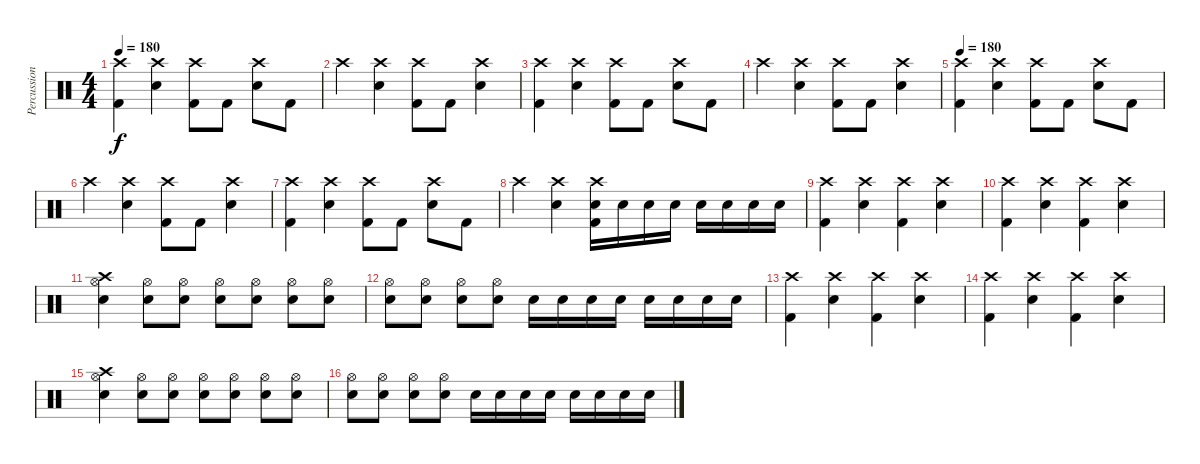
\track ("Percussions" "Percussion") {instrument percussion}
\staff {score}
\articulation defaults
\ts (4 4)
\tempo 180
\clef neutral
\ks c
("Crash high (hit)" "Kick (hit) 2").4{dy f} ("Crash high (hit)" "Electric Snare (hit)").4 ("Crash high (hit)" "Kick (hit) 2").8 "Kick (hit) 2".8 ("Crash high (hit)" "Electric Snare (hit)").8 "Kick (hit) 2".8 |
"Crash high (hit)".4 ("Crash high (hit)" "Electric Snare (hit)").4 ("Crash high (hit)" "Kick (hit) 2").8 "Kick (hit) 2".8 ("Crash high (hit)" "Electric Snare (hit)").4 |
("Crash high (hit)" "Kick (hit) 2").4 ("Crash high (hit)" "Electric Snare (hit)").4 ("Crash high (hit)" "Kick (hit) 2").8 "Kick (hit) 2".8 ("Crash high (hit)" "Electric Snare (hit)").8 "Kick (hit) 2".8 |
"Crash high (hit)".4 ("Crash high (hit)" "Electric Snare (hit)").4 ("Crash high (hit)" "Kick (hit) 2").8 "Kick (hit) 2".8 ("Crash high (hit)" "Electric Snare (hit)").4 |
\tempo 180
("Crash high (hit)" "Kick (hit) 2").4 ("Crash high (hit)" "Electric Snare (hit)").4 ("Crash high (hit)" "Kick (hit) 2").8 "Kick (hit) 2".8 ("Crash high (hit)" "Electric Snare (hit)").8 "Kick (hit) 2".8 |
"Crash high (hit)".4 ("Crash high (hit)" "Electric Snare (hit)").4 ("Crash high (hit)" "Kick (hit) 2").8 "Kick (hit) 2".8 ("Crash high (hit)" "Electric Snare (hit)").4 |
("Crash high (hit)" "Kick (hit) 2").4 ("Crash high (hit)" "Electric Snare (hit)").4 ("Crash high (hit)" "Kick (hit) 2").8 "Kick (hit) 2".8 ("Crash high (hit)" "Electric Snare (hit)").8 "Kick (hit) 2".8 |
"Crash high (hit)".4 ("Crash high (hit)" "Electric Snare (hit)").4 ("Crash high (hit)" "Kick (hit) 2" "Electric Snare (hit)").16 "Electric Snare (hit)".16 "Electric Snare (hit)".16 "Electric Snare (hit)".16 "Electric Snare (hit)".16 "Electric Snare (hit)".16 "Electric Snare (hit)".16 "Electric Snare (hit)".16 |
("Crash high (hit)" "Kick (hit) 2").4 ("Crash high (hit)" "Electric Snare (hit)").4 ("Crash high (hit)" "Kick (hit) 2").4 ("Crash high (hit)" "Electric Snare (hit)").4 |
("Crash high (hit)" "Kick (hit) 2").4 ("Crash high (hit)" "Electric Snare (hit)").4 ("Crash high (hit)" "Kick (hit) 2").4 ("Crash high (hit)" "Electric Snare (hit)").4 |
("Crash high (hit)" "Hi-Hat (open)" "Electric Snare (hit)").4 ("Hi-Hat (open)" "Electric Snare (hit)").8 ("Hi-Hat (open)" "Electric Snare (hit)").8 ("Hi-Hat (open)" "Electric Snare (hit)").8 ("Hi-Hat (open)" "Electric Snare (hit)").8 ("Hi-Hat (open)" "Electric Snare (hit)").8 ("Hi-Hat (open)" "Electric Snare (hit)").8 |
("Hi-Hat (open)" "Electric Snare (hit)").8 ("Hi-Hat (open)" "Electric Snare (hit)").8 ("Hi-Hat (open)" "Electric Snare (hit)").8 ("Hi-Hat (open)" "Electric Snare (hit)").8 "Electric Snare (hit)".16 "Electric Snare (hit)".16 "Electric Snare (hit)".16 "Electric Snare (hit)".16 "Electric Snare (hit)".16 "Electric Snare (hit)".16 "Electric Snare (hit)".16 "Electric Snare (hit)".16 |
("Crash high (hit)" "Kick (hit) 2").4 ("Crash high (hit)" "Electric Snare (hit)").4 ("Crash high (hit)" "Kick (hit) 2").4 ("Crash high (hit)" "Electric Snare (hit)").4 |
("Crash high (hit)" "Kick (hit) 2").4 ("Crash high (hit)" "Electric Snare (hit)").4 ("Crash high (hit)" "Kick (hit) 2").4 ("Crash high (hit)" "Electric Snare (hit)").4 |
("Crash high (hit)" "Hi-Hat (open)" "Electric Snare (hit)").4 ("Hi-Hat (open)" "Electric Snare (hit)").8 ("Hi-Hat (open)" "Electric Snare (hit)").8 ("Hi-Hat (open)" "Electric Snare (hit)").8 ("Hi-Hat (open)" "Electric Snare (hit)").8 ("Hi-Hat (open)" "Electric Snare (hit)").8 ("Hi-Hat (open)" "Electric Snare (hit)").8 |
("Hi-Hat (open)" "Electric Snare (hit)").8 ("Hi-Hat (open)" "Electric Snare (hit)").8 ("Hi-Hat (open)" "Electric Snare (hit)").8 ("Hi-Hat (open)" "Electric Snare (hit)").8 "Electric Snare (hit)".16 "Electric Snare (hit)".16 "Electric Snare (hit)".16 "Electric Snare (hit)".16 "Electric Snare (hit)".16 "Electric Snare (hit)".16 "Electric Snare (hit)".16 "Electric Snare (hit)".16
